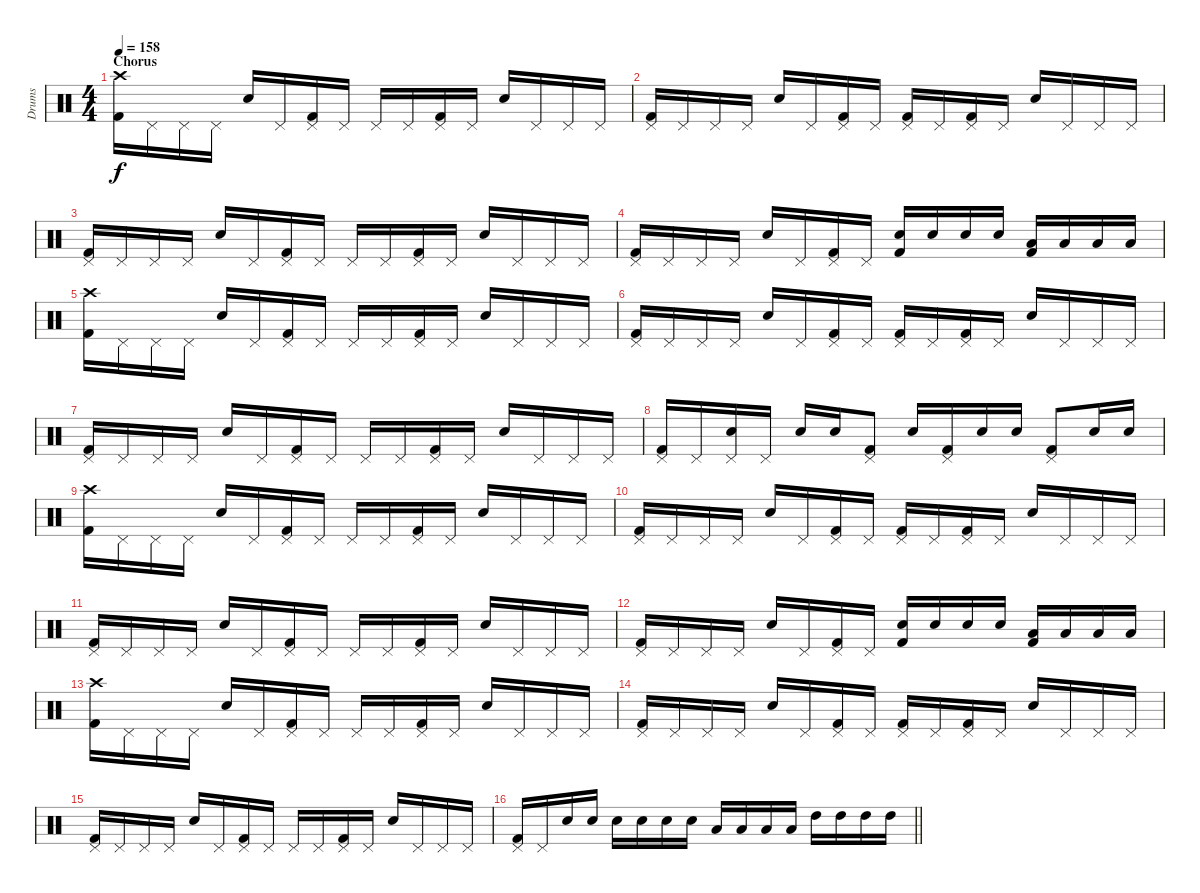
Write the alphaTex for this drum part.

\track ("Drums" "Drums") {instrument percussion}
\staff {score}
\articulation defaults
\ts (4 4)
\section ("" "Chorus")
\tempo 158
\clef neutral
\ks c
("Crash high (hit)" "Kick (hit) 2").16{dy f} "Pedal Hi-Hat (hit)".16 "Pedal Hi-Hat (hit)".16 "Pedal Hi-Hat (hit)".16 "Electric Snare (hit)".16 "Pedal Hi-Hat (hit)".16 ("Pedal Hi-Hat (hit)" "Kick (hit) 2").16 "Pedal Hi-Hat (hit)".16 "Pedal Hi-Hat (hit)".16 "Pedal Hi-Hat (hit)".16 ("Pedal Hi-Hat (hit)" "Kick (hit) 2").16 "Pedal Hi-Hat (hit)".16 "Electric Snare (hit)".16 "Pedal Hi-Hat (hit)".16 "Pedal Hi-Hat (hit)".16 "Pedal Hi-Hat (hit)".16 |
("Pedal Hi-Hat (hit)" "Kick (hit) 2").16 "Pedal Hi-Hat (hit)".16 "Pedal Hi-Hat (hit)".16 "Pedal Hi-Hat (hit)".16 "Electric Snare (hit)".16 "Pedal Hi-Hat (hit)".16 ("Pedal Hi-Hat (hit)" "Kick (hit) 2").16 "Pedal Hi-Hat (hit)".16 ("Pedal Hi-Hat (hit)" "Kick (hit) 2").16 "Pedal Hi-Hat (hit)".16 ("Pedal Hi-Hat (hit)" "Kick (hit) 2").16 "Pedal Hi-Hat (hit)".16 "Electric Snare (hit)".16 "Pedal Hi-Hat (hit)".16 "Pedal Hi-Hat (hit)".16 "Pedal Hi-Hat (hit)".16 |
("Pedal Hi-Hat (hit)" "Kick (hit) 2").16 "Pedal Hi-Hat (hit)".16 "Pedal Hi-Hat (hit)".16 "Pedal Hi-Hat (hit)".16 "Electric Snare (hit)".16 "Pedal Hi-Hat (hit)".16 ("Pedal Hi-Hat (hit)" "Kick (hit) 2").16 "Pedal Hi-Hat (hit)".16 "Pedal Hi-Hat (hit)".16 "Pedal Hi-Hat (hit)".16 ("Pedal Hi-Hat (hit)" "Kick (hit) 2").16 "Pedal Hi-Hat (hit)".16 "Electric Snare (hit)".16 "Pedal Hi-Hat (hit)".16 "Pedal Hi-Hat (hit)".16 "Pedal Hi-Hat (hit)".16 |
("Pedal Hi-Hat (hit)" "Kick (hit) 2").16 "Pedal Hi-Hat (hit)".16 "Pedal Hi-Hat (hit)".16 "Pedal Hi-Hat (hit)".16 "Electric Snare (hit)".16 "Pedal Hi-Hat (hit)".16 ("Pedal Hi-Hat (hit)" "Kick (hit) 2").16 "Pedal Hi-Hat (hit)".16 ("Electric Snare (hit)" "Kick (hit) 2").16 "Electric Snare (hit)".16 "Electric Snare (hit)".16 "Electric Snare (hit)".16 ("Low Tom (hit)" "Kick (hit) 2").16 "Low Tom (hit)".16 "Low Tom (hit)".16 "Low Tom (hit)".16 |
("Crash high (hit)" "Kick (hit) 2").16 "Pedal Hi-Hat (hit)".16 "Pedal Hi-Hat (hit)".16 "Pedal Hi-Hat (hit)".16 "Electric Snare (hit)".16 "Pedal Hi-Hat (hit)".16 ("Pedal Hi-Hat (hit)" "Kick (hit) 2").16 "Pedal Hi-Hat (hit)".16 "Pedal Hi-Hat (hit)".16 "Pedal Hi-Hat (hit)".16 ("Pedal Hi-Hat (hit)" "Kick (hit) 2").16 "Pedal Hi-Hat (hit)".16 "Electric Snare (hit)".16 "Pedal Hi-Hat (hit)".16 "Pedal Hi-Hat (hit)".16 "Pedal Hi-Hat (hit)".16 |
("Pedal Hi-Hat (hit)" "Kick (hit) 2").16 "Pedal Hi-Hat (hit)".16 "Pedal Hi-Hat (hit)".16 "Pedal Hi-Hat (hit)".16 "Electric Snare (hit)".16 "Pedal Hi-Hat (hit)".16 ("Pedal Hi-Hat (hit)" "Kick (hit) 2").16 "Pedal Hi-Hat (hit)".16 ("Pedal Hi-Hat (hit)" "Kick (hit) 2").16 "Pedal Hi-Hat (hit)".16 ("Pedal Hi-Hat (hit)" "Kick (hit) 2").16 "Pedal Hi-Hat (hit)".16 "Electric Snare (hit)".16 "Pedal Hi-Hat (hit)".16 "Pedal Hi-Hat (hit)".16 "Pedal Hi-Hat (hit)".16 |
("Pedal Hi-Hat (hit)" "Kick (hit) 2").16 "Pedal Hi-Hat (hit)".16 "Pedal Hi-Hat (hit)".16 "Pedal Hi-Hat (hit)".16 "Electric Snare (hit)".16 "Pedal Hi-Hat (hit)".16 ("Pedal Hi-Hat (hit)" "Kick (hit) 2").16 "Pedal Hi-Hat (hit)".16 "Pedal Hi-Hat (hit)".16 "Pedal Hi-Hat (hit)".16 ("Pedal Hi-Hat (hit)" "Kick (hit) 2").16 "Pedal Hi-Hat (hit)".16 "Electric Snare (hit)".16 "Pedal Hi-Hat (hit)".16 "Pedal Hi-Hat (hit)".16 "Pedal Hi-Hat (hit)".16 |
("Pedal Hi-Hat (hit)" "Kick (hit) 2").16 "Pedal Hi-Hat (hit)".16 ("Pedal Hi-Hat (hit)" "Electric Snare (hit)").16 "Pedal Hi-Hat (hit)".16 "Electric Snare (hit)".16 "Electric Snare (hit)".16 ("Pedal Hi-Hat (hit)" "Kick (hit) 2").8 "Electric Snare (hit)".16 ("Pedal Hi-Hat (hit)" "Kick (hit) 2").16 "Electric Snare (hit)".16 "Electric Snare (hit)".16 ("Pedal Hi-Hat (hit)" "Kick (hit) 2").8 "Electric Snare (hit)".16 "Electric Snare (hit)".16 |
("Crash high (hit)" "Kick (hit) 2").16 "Pedal Hi-Hat (hit)".16 "Pedal Hi-Hat (hit)".16 "Pedal Hi-Hat (hit)".16 "Electric Snare (hit)".16 "Pedal Hi-Hat (hit)".16 ("Pedal Hi-Hat (hit)" "Kick (hit) 2").16 "Pedal Hi-Hat (hit)".16 "Pedal Hi-Hat (hit)".16 "Pedal Hi-Hat (hit)".16 ("Pedal Hi-Hat (hit)" "Kick (hit) 2").16 "Pedal Hi-Hat (hit)".16 "Electric Snare (hit)".16 "Pedal Hi-Hat (hit)".16 "Pedal Hi-Hat (hit)".16 "Pedal Hi-Hat (hit)".16 |
("Pedal Hi-Hat (hit)" "Kick (hit) 2").16 "Pedal Hi-Hat (hit)".16 "Pedal Hi-Hat (hit)".16 "Pedal Hi-Hat (hit)".16 "Electric Snare (hit)".16 "Pedal Hi-Hat (hit)".16 ("Pedal Hi-Hat (hit)" "Kick (hit) 2").16 "Pedal Hi-Hat (hit)".16 ("Pedal Hi-Hat (hit)" "Kick (hit) 2").16 "Pedal Hi-Hat (hit)".16 ("Pedal Hi-Hat (hit)" "Kick (hit) 2").16 "Pedal Hi-Hat (hit)".16 "Electric Snare (hit)".16 "Pedal Hi-Hat (hit)".16 "Pedal Hi-Hat (hit)".16 "Pedal Hi-Hat (hit)".16 |
("Pedal Hi-Hat (hit)" "Kick (hit) 2").16 "Pedal Hi-Hat (hit)".16 "Pedal Hi-Hat (hit)".16 "Pedal Hi-Hat (hit)".16 "Electric Snare (hit)".16 "Pedal Hi-Hat (hit)".16 ("Pedal Hi-Hat (hit)" "Kick (hit) 2").16 "Pedal Hi-Hat (hit)".16 "Pedal Hi-Hat (hit)".16 "Pedal Hi-Hat (hit)".16 ("Pedal Hi-Hat (hit)" "Kick (hit) 2").16 "Pedal Hi-Hat (hit)".16 "Electric Snare (hit)".16 "Pedal Hi-Hat (hit)".16 "Pedal Hi-Hat (hit)".16 "Pedal Hi-Hat (hit)".16 |
("Pedal Hi-Hat (hit)" "Kick (hit) 2").16 "Pedal Hi-Hat (hit)".16 "Pedal Hi-Hat (hit)".16 "Pedal Hi-Hat (hit)".16 "Electric Snare (hit)".16 "Pedal Hi-Hat (hit)".16 ("Pedal Hi-Hat (hit)" "Kick (hit) 2").16 "Pedal Hi-Hat (hit)".16 ("Electric Snare (hit)" "Kick (hit) 2").16 "Electric Snare (hit)".16 "Electric Snare (hit)".16 "Electric Snare (hit)".16 ("Low Tom (hit)" "Kick (hit) 2").16 "Low Tom (hit)".16 "Low Tom (hit)".16 "Low Tom (hit)".16 |
("Crash high (hit)" "Kick (hit) 2").16 "Pedal Hi-Hat (hit)".16 "Pedal Hi-Hat (hit)".16 "Pedal Hi-Hat (hit)".16 "Electric Snare (hit)".16 "Pedal Hi-Hat (hit)".16 ("Pedal Hi-Hat (hit)" "Kick (hit) 2").16 "Pedal Hi-Hat (hit)".16 "Pedal Hi-Hat (hit)".16 "Pedal Hi-Hat (hit)".16 ("Pedal Hi-Hat (hit)" "Kick (hit) 2").16 "Pedal Hi-Hat (hit)".16 "Electric Snare (hit)".16 "Pedal Hi-Hat (hit)".16 "Pedal Hi-Hat (hit)".16 "Pedal Hi-Hat (hit)".16 |
("Pedal Hi-Hat (hit)" "Kick (hit) 2").16 "Pedal Hi-Hat (hit)".16 "Pedal Hi-Hat (hit)".16 "Pedal Hi-Hat (hit)".16 "Electric Snare (hit)".16 "Pedal Hi-Hat (hit)".16 ("Pedal Hi-Hat (hit)" "Kick (hit) 2").16 "Pedal Hi-Hat (hit)".16 ("Pedal Hi-Hat (hit)" "Kick (hit) 2").16 "Pedal Hi-Hat (hit)".16 ("Pedal Hi-Hat (hit)" "Kick (hit) 2").16 "Pedal Hi-Hat (hit)".16 "Electric Snare (hit)".16 "Pedal Hi-Hat (hit)".16 "Pedal Hi-Hat (hit)".16 "Pedal Hi-Hat (hit)".16 |
("Pedal Hi-Hat (hit)" "Kick (hit) 2").16 "Pedal Hi-Hat (hit)".16 "Pedal Hi-Hat (hit)".16 "Pedal Hi-Hat (hit)".16 "Electric Snare (hit)".16 "Pedal Hi-Hat (hit)".16 ("Pedal Hi-Hat (hit)" "Kick (hit) 2").16 "Pedal Hi-Hat (hit)".16 "Pedal Hi-Hat (hit)".16 "Pedal Hi-Hat (hit)".16 ("Pedal Hi-Hat (hit)" "Kick (hit) 2").16 "Pedal Hi-Hat (hit)".16 "Electric Snare (hit)".16 "Pedal Hi-Hat (hit)".16 "Pedal Hi-Hat (hit)".16 "Pedal Hi-Hat (hit)".16 |
\barLineRight lightlight
("Pedal Hi-Hat (hit)" "Kick (hit) 2").16 "Pedal Hi-Hat (hit)".16 "Electric Snare (hit)".16 "Electric Snare (hit)".16 "Electric Snare (hit)".16 "Electric Snare (hit)".16 "Electric Snare (hit)".16 "Electric Snare (hit)".16 "Low Tom (hit)".16 "Low Tom (hit)".16 "Low Tom (hit)".16 "Low Tom (hit)".16 "High Tom (hit)".16 "High Tom (hit)".16 "High Tom (hit)".16 "High Tom (hit)".16
